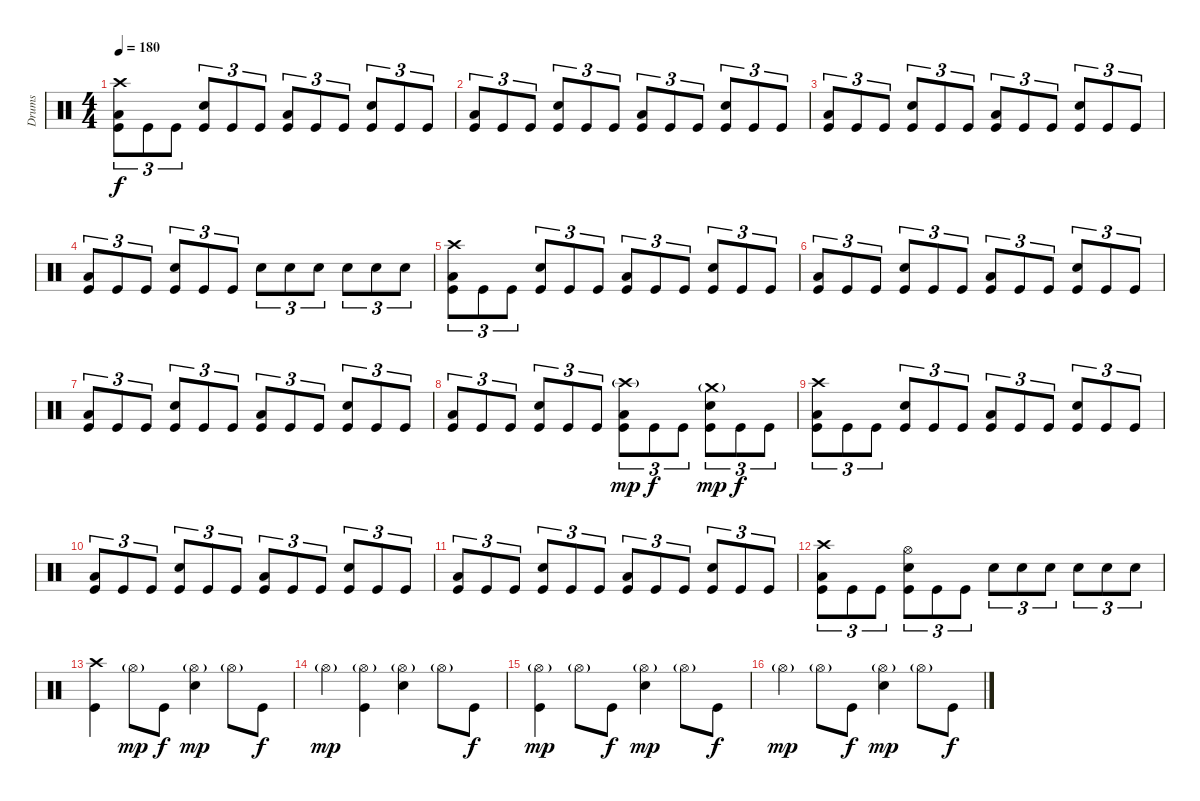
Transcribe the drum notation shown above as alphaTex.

\track ("Drums" "Drums") {instrument percussion}
\staff {score}
\articulation defaults
\ts (4 4)
\tempo 180
\clef neutral
\ks c
("Crash high (hit)" "Low Tom (hit)" "Kick (hit)").8{tu (3 2) dy f} "Kick (hit)".8{tu (3 2)} "Kick (hit)".8{tu (3 2)} ("Snare (hit) 2" "Kick (hit)").8{tu (3 2)} "Kick (hit)".8{tu (3 2)} "Kick (hit)".8{tu (3 2)} ("Low Tom (hit)" "Kick (hit)").8{tu (3 2)} "Kick (hit)".8{tu (3 2)} "Kick (hit)".8{tu (3 2)} ("Snare (hit) 2" "Kick (hit)").8{tu (3 2)} "Kick (hit)".8{tu (3 2)} "Kick (hit)".8{tu (3 2)} |
("Low Tom (hit)" "Kick (hit)").8{tu (3 2)} "Kick (hit)".8{tu (3 2)} "Kick (hit)".8{tu (3 2)} ("Snare (hit) 2" "Kick (hit)").8{tu (3 2)} "Kick (hit)".8{tu (3 2)} "Kick (hit)".8{tu (3 2)} ("Low Tom (hit)" "Kick (hit)").8{tu (3 2)} "Kick (hit)".8{tu (3 2)} "Kick (hit)".8{tu (3 2)} ("Snare (hit) 2" "Kick (hit)").8{tu (3 2)} "Kick (hit)".8{tu (3 2)} "Kick (hit)".8{tu (3 2)} |
("Low Tom (hit)" "Kick (hit)").8{tu (3 2)} "Kick (hit)".8{tu (3 2)} "Kick (hit)".8{tu (3 2)} ("Snare (hit) 2" "Kick (hit)").8{tu (3 2)} "Kick (hit)".8{tu (3 2)} "Kick (hit)".8{tu (3 2)} ("Low Tom (hit)" "Kick (hit)").8{tu (3 2)} "Kick (hit)".8{tu (3 2)} "Kick (hit)".8{tu (3 2)} ("Snare (hit) 2" "Kick (hit)").8{tu (3 2)} "Kick (hit)".8{tu (3 2)} "Kick (hit)".8{tu (3 2)} |
("Low Tom (hit)" "Kick (hit)").8{tu (3 2)} "Kick (hit)".8{tu (3 2)} "Kick (hit)".8{tu (3 2)} ("Snare (hit) 2" "Kick (hit)").8{tu (3 2)} "Kick (hit)".8{tu (3 2)} "Kick (hit)".8{tu (3 2)} "Snare (hit) 2".8{tu (3 2)} "Snare (hit) 2".8{tu (3 2)} "Snare (hit) 2".8{tu (3 2)} "Snare (hit) 2".8{tu (3 2)} "Snare (hit) 2".8{tu (3 2)} "Snare (hit) 2".8{tu (3 2)} |
("Crash high (hit)" "Low Tom (hit)" "Kick (hit)").8{tu (3 2)} "Kick (hit)".8{tu (3 2)} "Kick (hit)".8{tu (3 2)} ("Snare (hit) 2" "Kick (hit)").8{tu (3 2)} "Kick (hit)".8{tu (3 2)} "Kick (hit)".8{tu (3 2)} ("Low Tom (hit)" "Kick (hit)").8{tu (3 2)} "Kick (hit)".8{tu (3 2)} "Kick (hit)".8{tu (3 2)} ("Snare (hit) 2" "Kick (hit)").8{tu (3 2)} "Kick (hit)".8{tu (3 2)} "Kick (hit)".8{tu (3 2)} |
("Low Tom (hit)" "Kick (hit)").8{tu (3 2)} "Kick (hit)".8{tu (3 2)} "Kick (hit)".8{tu (3 2)} ("Snare (hit) 2" "Kick (hit)").8{tu (3 2)} "Kick (hit)".8{tu (3 2)} "Kick (hit)".8{tu (3 2)} ("Low Tom (hit)" "Kick (hit)").8{tu (3 2)} "Kick (hit)".8{tu (3 2)} "Kick (hit)".8{tu (3 2)} ("Snare (hit) 2" "Kick (hit)").8{tu (3 2)} "Kick (hit)".8{tu (3 2)} "Kick (hit)".8{tu (3 2)} |
("Low Tom (hit)" "Kick (hit)").8{tu (3 2)} "Kick (hit)".8{tu (3 2)} "Kick (hit)".8{tu (3 2)} ("Snare (hit) 2" "Kick (hit)").8{tu (3 2)} "Kick (hit)".8{tu (3 2)} "Kick (hit)".8{tu (3 2)} ("Low Tom (hit)" "Kick (hit)").8{tu (3 2)} "Kick (hit)".8{tu (3 2)} "Kick (hit)".8{tu (3 2)} ("Snare (hit) 2" "Kick (hit)").8{tu (3 2)} "Kick (hit)".8{tu (3 2)} "Kick (hit)".8{tu (3 2)} |
("Low Tom (hit)" "Kick (hit)").8{tu (3 2)} "Kick (hit)".8{tu (3 2)} "Kick (hit)".8{tu (3 2)} ("Snare (hit) 2" "Kick (hit)").8{tu (3 2)} "Kick (hit)".8{tu (3 2)} "Kick (hit)".8{tu (3 2)} ("Crash high (hit)"{g} "Low Tom (hit)" "Kick (hit)").8{tu (3 2) dy mp} "Kick (hit)".8{tu (3 2) dy f} "Kick (hit)".8{tu (3 2)} ("Crash medium (hit)"{g} "Snare (hit) 2" "Kick (hit)").8{tu (3 2) dy mp} "Kick (hit)".8{tu (3 2) dy f} "Kick (hit)".8{tu (3 2)} |
("Crash high (hit)" "Low Tom (hit)" "Kick (hit)").8{tu (3 2)} "Kick (hit)".8{tu (3 2)} "Kick (hit)".8{tu (3 2)} ("Snare (hit) 2" "Kick (hit)").8{tu (3 2)} "Kick (hit)".8{tu (3 2)} "Kick (hit)".8{tu (3 2)} ("Low Tom (hit)" "Kick (hit)").8{tu (3 2)} "Kick (hit)".8{tu (3 2)} "Kick (hit)".8{tu (3 2)} ("Snare (hit) 2" "Kick (hit)").8{tu (3 2)} "Kick (hit)".8{tu (3 2)} "Kick (hit)".8{tu (3 2)} |
("Low Tom (hit)" "Kick (hit)").8{tu (3 2)} "Kick (hit)".8{tu (3 2)} "Kick (hit)".8{tu (3 2)} ("Snare (hit) 2" "Kick (hit)").8{tu (3 2)} "Kick (hit)".8{tu (3 2)} "Kick (hit)".8{tu (3 2)} ("Low Tom (hit)" "Kick (hit)").8{tu (3 2)} "Kick (hit)".8{tu (3 2)} "Kick (hit)".8{tu (3 2)} ("Snare (hit) 2" "Kick (hit)").8{tu (3 2)} "Kick (hit)".8{tu (3 2)} "Kick (hit)".8{tu (3 2)} |
("Low Tom (hit)" "Kick (hit)").8{tu (3 2)} "Kick (hit)".8{tu (3 2)} "Kick (hit)".8{tu (3 2)} ("Snare (hit) 2" "Kick (hit)").8{tu (3 2)} "Kick (hit)".8{tu (3 2)} "Kick (hit)".8{tu (3 2)} ("Low Tom (hit)" "Kick (hit)").8{tu (3 2)} "Kick (hit)".8{tu (3 2)} "Kick (hit)".8{tu (3 2)} ("Snare (hit) 2" "Kick (hit)").8{tu (3 2)} "Kick (hit)".8{tu (3 2)} "Kick (hit)".8{tu (3 2)} |
("Crash high (hit)" "Low Tom (hit)" "Kick (hit)").8{tu (3 2)} "Kick (hit)".8{tu (3 2)} "Kick (hit)".8{tu (3 2)} ("Hi-Hat (open)" "Snare (hit) 2" "Kick (hit)").8{tu (3 2)} "Kick (hit)".8{tu (3 2)} "Kick (hit)".8{tu (3 2)} "Snare (hit) 2".8{tu (3 2)} "Snare (hit) 2".8{tu (3 2)} "Snare (hit) 2".8{tu (3 2)} "Snare (hit) 2".8{tu (3 2)} "Snare (hit) 2".8{tu (3 2)} "Snare (hit) 2".8{tu (3 2)} |
("Crash high (hit)" "Kick (hit)").4 "Hi-Hat (open)"{g}.8{dy mp} "Kick (hit)".8{dy f} ("Hi-Hat (open)"{g} "Snare (hit) 2").4{dy mp} "Hi-Hat (open)"{g}.8 "Kick (hit)".8{dy f} |
"Hi-Hat (open)"{g}.4{dy mp} ("Hi-Hat (open)"{g} "Kick (hit)").4 ("Hi-Hat (open)"{g} "Snare (hit) 2").4 "Hi-Hat (open)"{g}.8 "Kick (hit)".8{dy f} |
("Hi-Hat (open)"{g} "Kick (hit)").4{dy mp} "Hi-Hat (open)"{g}.8 "Kick (hit)".8{dy f} ("Hi-Hat (open)"{g} "Snare (hit) 2").4{dy mp} "Hi-Hat (open)"{g}.8 "Kick (hit)".8{dy f} |
"Hi-Hat (open)"{g}.4{dy mp} "Hi-Hat (open)"{g}.8 "Kick (hit)".8{dy f} ("Hi-Hat (open)"{g} "Snare (hit) 2").4{dy mp} "Hi-Hat (open)"{g}.8 "Kick (hit)".8{dy f}
